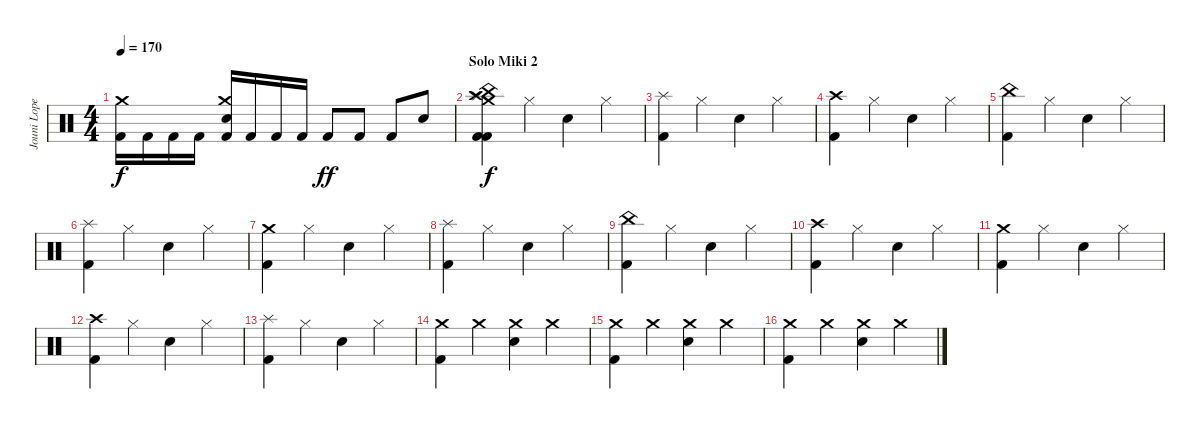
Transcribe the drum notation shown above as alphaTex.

\track ("Jouni Lopez (Bateria) 17 años" "Jouni Lope") {instrument percussion}
\staff {score}
\articulation defaults
\ts (4 4)
\tempo 170
\clef neutral
\ks c
("Kick (hit) 2" "Crash medium (hit)").16{dy f} "Kick (hit) 2".16 "Kick (hit) 2".16 "Kick (hit) 2".16 ("Kick (hit) 2" "Snare (hit) 2" "Crash medium (hit)").16 "Kick (hit) 2".16 "Kick (hit) 2".16 "Kick (hit) 2".16 "Kick (hit) 2".8{dy ff} "Kick (hit) 2".8 "Kick (hit) 2".8 "Snare (hit) 2".8 |
\section ("" "Solo Miki 2")
("Kick (hit) 2" "Crash medium (hit)" "Splash (hit)" "China (hit)" "Crash high (hit)" "Kick (hit) 2").4{dy f} "Hi-Hat (closed)".4 "Snare (hit) 2".4 "Hi-Hat (closed)".4 |
("Kick (hit) 2" "Splash (hit)").4 "Hi-Hat (closed)".4 "Snare (hit) 2".4 "Hi-Hat (closed)".4 |
("Kick (hit) 2" "Crash high (hit)").4 "Hi-Hat (closed)".4 "Snare (hit) 2".4 "Hi-Hat (closed)".4 |
("Kick (hit) 2" "China (hit)").4 "Hi-Hat (closed)".4 "Snare (hit) 2".4 "Hi-Hat (closed)".4 |
("Kick (hit) 2" "Splash (hit)").4 "Hi-Hat (closed)".4 "Snare (hit) 2".4 "Hi-Hat (closed)".4 |
("Kick (hit) 2" "Crash medium (hit)").4 "Hi-Hat (closed)".4 "Snare (hit) 2".4 "Hi-Hat (closed)".4 |
("Kick (hit) 2" "Splash (hit)").4 "Hi-Hat (closed)".4 "Snare (hit) 2".4 "Hi-Hat (closed)".4 |
("Kick (hit) 2" "China (hit)").4 "Hi-Hat (closed)".4 "Snare (hit) 2".4 "Hi-Hat (closed)".4 |
("Kick (hit) 2" "Crash high (hit)").4 "Hi-Hat (closed)".4 "Snare (hit) 2".4 "Hi-Hat (closed)".4 |
("Kick (hit) 2" "Crash medium (hit)").4 "Hi-Hat (closed)".4 "Snare (hit) 2".4 "Hi-Hat (closed)".4 |
("Kick (hit) 2" "Crash high (hit)").4 "Hi-Hat (closed)".4 "Snare (hit) 2".4 "Hi-Hat (closed)".4 |
("Kick (hit) 2" "Splash (hit)").4 "Hi-Hat (closed)".4 "Snare (hit) 2".4 "Hi-Hat (closed)".4 |
("Crash medium (hit)" "Kick (hit) 2").4 "Crash medium (hit)".4 ("Crash medium (hit)" "Snare (hit) 2").4 "Crash medium (hit)".4 |
("Crash medium (hit)" "Kick (hit) 2").4 "Crash medium (hit)".4 ("Crash medium (hit)" "Snare (hit) 2").4 "Crash medium (hit)".4 |
("Crash medium (hit)" "Kick (hit) 2").4 "Crash medium (hit)".4 ("Crash medium (hit)" "Snare (hit) 2").4 "Crash medium (hit)".4
